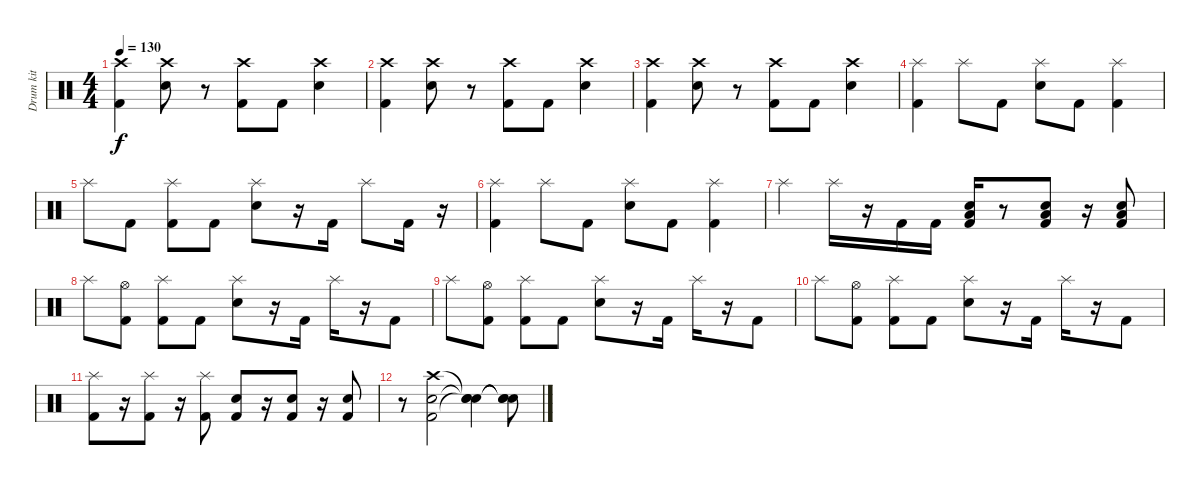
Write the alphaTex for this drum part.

\track ("Drum kit" "Drum kit") {instrument percussion}
\staff {score}
\articulation defaults
\ts (4 4)
\tempo 130
\clef neutral
\ks c
("Crash high (hit)" "Kick (hit) 2").4{dy f} ("Crash high (hit)" "Electric Snare (hit)").8 r.8 ("Crash high (hit)" "Kick (hit) 2").8 "Kick (hit) 2".8 ("Crash high (hit)" "Electric Snare (hit)").4 |
("Crash high (hit)" "Kick (hit) 2").4 ("Crash high (hit)" "Electric Snare (hit)").8 r.8 ("Crash high (hit)" "Kick (hit) 2").8 "Kick (hit) 2".8 ("Crash high (hit)" "Electric Snare (hit)").4 |
("Crash high (hit)" "Kick (hit) 2").4 ("Crash high (hit)" "Electric Snare (hit)").8 r.8 ("Crash high (hit)" "Kick (hit) 2").8 "Kick (hit) 2".8 ("Crash high (hit)" "Electric Snare (hit)").4 |
("Splash (hit)" "Kick (hit) 2").4 "Splash (hit)".8 "Kick (hit) 2".8 ("Splash (hit)" "Electric Snare (hit)").8 "Kick (hit) 2".8 ("Splash (hit)" "Kick (hit) 2").4 |
"Splash (hit)".8 "Kick (hit) 2".8 ("Splash (hit)" "Kick (hit) 2").8 "Kick (hit) 2".8 ("Splash (hit)" "Electric Snare (hit)").8 r.16 "Kick (hit) 2".16 "Splash (hit)".8 "Kick (hit) 2".16 r.16 |
("Splash (hit)" "Kick (hit) 2").4 "Splash (hit)".8 "Kick (hit) 2".8 ("Splash (hit)" "Electric Snare (hit)").8 "Kick (hit) 2".8 ("Splash (hit)" "Kick (hit) 2").4 |
"Splash (hit)".4 "Splash (hit)".16 r.16 "Kick (hit) 2".16 "Kick (hit) 2".16 ("Low Tom (hit)" "Electric Snare (hit)" "Kick (hit) 2").16 r.8 ("Low Tom (hit)" "Electric Snare (hit)" "Kick (hit) 2").8 r.16 ("Low Tom (hit)" "Electric Snare (hit)" "Kick (hit) 2").8 |
"Splash (hit)".8 ("Hi-Hat (open)" "Kick (hit) 2").8 ("Splash (hit)" "Kick (hit) 2").8 "Kick (hit) 2".8 ("Splash (hit)" "Electric Snare (hit)").8 r.16 "Kick (hit) 2".16 "Splash (hit)".16 r.16 "Kick (hit) 2".8 |
"Splash (hit)".8 ("Hi-Hat (open)" "Kick (hit) 2").8 ("Splash (hit)" "Kick (hit) 2").8 "Kick (hit) 2".8 ("Splash (hit)" "Electric Snare (hit)").8 r.16 "Kick (hit) 2".16 "Splash (hit)".16 r.16 "Kick (hit) 2".8 |
"Splash (hit)".8 ("Hi-Hat (open)" "Kick (hit) 2").8 ("Splash (hit)" "Kick (hit) 2").8 "Kick (hit) 2".8 ("Splash (hit)" "Electric Snare (hit)").8 r.16 "Kick (hit) 2".16 "Splash (hit)".16 r.16 "Kick (hit) 2".8 |
("Splash (hit)" "Kick (hit) 2").8 r.16 ("Splash (hit)" "Kick (hit) 2").8 r.16 ("Splash (hit)" "Kick (hit) 2").8 ("Electric Snare (hit)" "Kick (hit) 2").8 r.16 ("Electric Snare (hit)" "Kick (hit) 2").8 r.16 ("Electric Snare (hit)" "Kick (hit) 2").8 |
r.8 ("Crash high (hit)" "Electric Snare (hit)" "Kick (hit) 2").2 ("Snare (hit)"{t} "Snare (hit)"{t} "Snare (hit)"{t}).4 ("Snare (hit)"{t} "Snare (hit)"{t} "Snare (hit)"{t}).8
